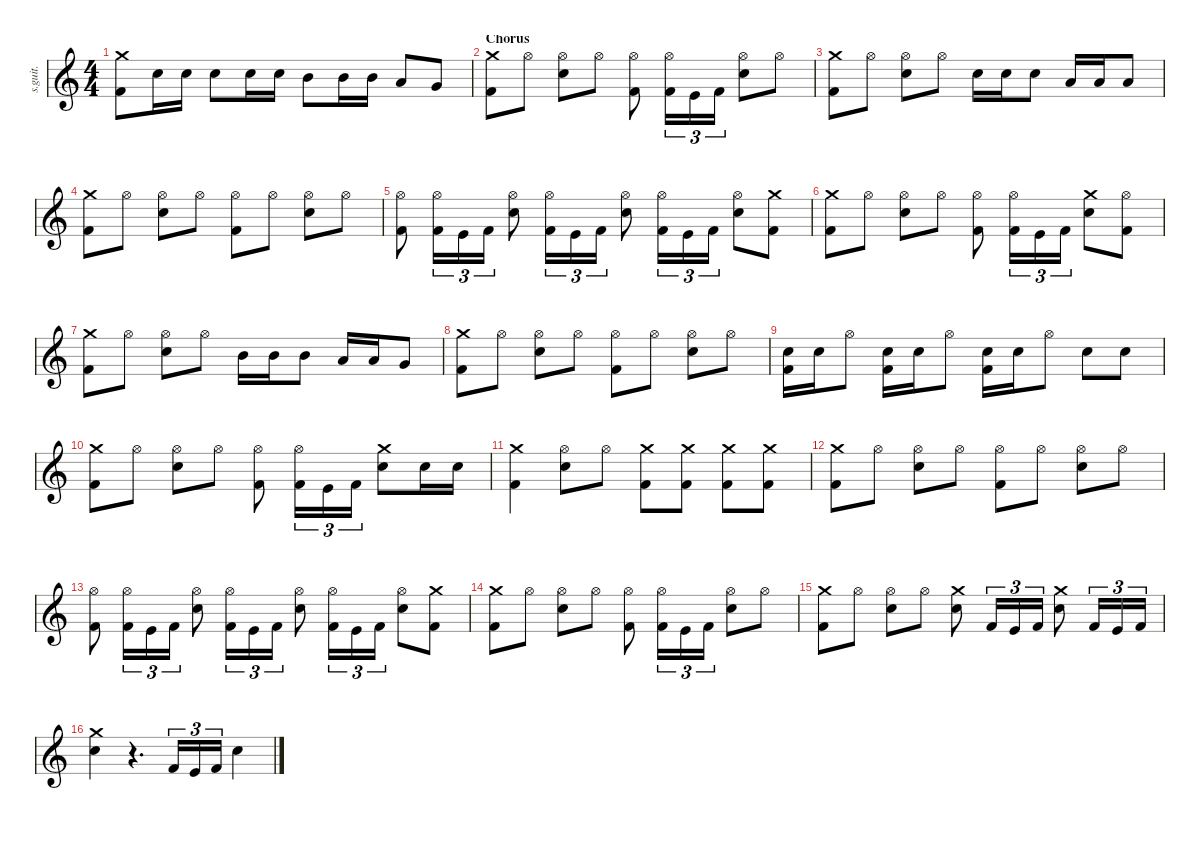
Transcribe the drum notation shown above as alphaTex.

\defaultSystemsLayout 4
\hideDynamics
\bracketExtendMode nobrackets
\track ("Lars Ulrich - Drums" "s.guit.") {instrument percussion}
\staff {score}
\articulation defaults
\ts (4 4)
\tempo (140 hide)
\clef g2
\ks c
("Crash medium (hit)" "Kick (hit) 2").8{lyrics (0 "") lyrics (1 "") lyrics (2 "") lyrics (3 "") lyrics (4 "") dy f} "Snare (hit) 2".16{lyrics (0 "") lyrics (1 "") lyrics (2 "") lyrics (3 "") lyrics (4 "") dy mf} "Snare (hit) 2".16{lyrics (0 "") lyrics (1 "") lyrics (2 "") lyrics (3 "") lyrics (4 "")} "Snare (hit) 2".8{lyrics (0 "") lyrics (1 "") lyrics (2 "") lyrics (3 "") lyrics (4 "") dy ff} "Snare (hit) 2".16{lyrics (0 "") lyrics (1 "") lyrics (2 "") lyrics (3 "") lyrics (4 "") dy mf} "Snare (hit) 2".16{lyrics (0 "") lyrics (1 "") lyrics (2 "") lyrics (3 "") lyrics (4 "")} "Mid Tom (hit)".8{lyrics (0 "") lyrics (1 "") lyrics (2 "") lyrics (3 "") lyrics (4 "") dy fff} "Mid Tom (hit)".16{lyrics (0 "") lyrics (1 "") lyrics (2 "") lyrics (3 "") lyrics (4 "")} "Mid Tom (hit)".16{lyrics (0 "") lyrics (1 "") lyrics (2 "") lyrics (3 "") lyrics (4 "")} "Low Tom (hit)".8{lyrics (0 "") lyrics (1 "") lyrics (2 "") lyrics (3 "") lyrics (4 "")} "Very Low Tom (hit)".8{lyrics (0 "") lyrics (1 "") lyrics (2 "") lyrics (3 "") lyrics (4 "") dy ff} |
\section ("" "Chorus")
("Crash medium (hit)" "Kick (hit) 2").8{lyrics (0 "") lyrics (1 "") lyrics (2 "") lyrics (3 "") lyrics (4 "") dy f} "Hi-Hat (open)".8{lyrics (0 "") lyrics (1 "") lyrics (2 "") lyrics (3 "") lyrics (4 "")} ("Hi-Hat (open)" "Snare (hit) 2").8{lyrics (0 "") lyrics (1 "") lyrics (2 "") lyrics (3 "") lyrics (4 "")} "Hi-Hat (open)".8{lyrics (0 "") lyrics (1 "") lyrics (2 "") lyrics (3 "") lyrics (4 "")} ("Hi-Hat (open)" "Kick (hit) 2").8{lyrics (0 "") lyrics (1 "") lyrics (2 "") lyrics (3 "") lyrics (4 "")} ("Hi-Hat (open)" "Kick (hit) 2").16{tu (3 2) lyrics (0 "") lyrics (1 "") lyrics (2 "") lyrics (3 "") lyrics (4 "")} "Kick (hit)".16{tu (3 2) lyrics (0 "") lyrics (1 "") lyrics (2 "") lyrics (3 "") lyrics (4 "")} "Kick (hit) 2".16{tu (3 2) lyrics (0 "") lyrics (1 "") lyrics (2 "") lyrics (3 "") lyrics (4 "")} ("Hi-Hat (open)" "Snare (hit) 2").8{lyrics (0 "") lyrics (1 "") lyrics (2 "") lyrics (3 "") lyrics (4 "")} "Hi-Hat (open)".8{lyrics (0 "") lyrics (1 "") lyrics (2 "") lyrics (3 "") lyrics (4 "")} |
("Crash medium (hit)" "Kick (hit) 2").8{lyrics (0 "") lyrics (1 "") lyrics (2 "") lyrics (3 "") lyrics (4 "")} "Hi-Hat (open)".8{lyrics (0 "") lyrics (1 "") lyrics (2 "") lyrics (3 "") lyrics (4 "")} ("Hi-Hat (open)" "Snare (hit) 2").8{lyrics (0 "") lyrics (1 "") lyrics (2 "") lyrics (3 "") lyrics (4 "")} "Hi-Hat (open)".8{lyrics (0 "") lyrics (1 "") lyrics (2 "") lyrics (3 "") lyrics (4 "")} "Snare (hit) 2".16{lyrics (0 "") lyrics (1 "") lyrics (2 "") lyrics (3 "") lyrics (4 "") dy ff} "Snare (hit) 2".16{lyrics (0 "") lyrics (1 "") lyrics (2 "") lyrics (3 "") lyrics (4 "")} "Snare (hit) 2".8{lyrics (0 "") lyrics (1 "") lyrics (2 "") lyrics (3 "") lyrics (4 "")} "Low Tom (hit)".16{lyrics (0 "") lyrics (1 "") lyrics (2 "") lyrics (3 "") lyrics (4 "") dy fff} "Low Tom (hit)".16{lyrics (0 "") lyrics (1 "") lyrics (2 "") lyrics (3 "") lyrics (4 "")} "Low Tom (hit)".8{lyrics (0 "") lyrics (1 "") lyrics (2 "") lyrics (3 "") lyrics (4 "")} |
("Crash medium (hit)" "Kick (hit) 2").8{lyrics (0 "") lyrics (1 "") lyrics (2 "") lyrics (3 "") lyrics (4 "") dy f} "Hi-Hat (open)".8{lyrics (0 "") lyrics (1 "") lyrics (2 "") lyrics (3 "") lyrics (4 "")} ("Hi-Hat (open)" "Snare (hit) 2").8{lyrics (0 "") lyrics (1 "") lyrics (2 "") lyrics (3 "") lyrics (4 "")} "Hi-Hat (open)".8{lyrics (0 "") lyrics (1 "") lyrics (2 "") lyrics (3 "") lyrics (4 "")} ("Hi-Hat (open)" "Kick (hit) 2").8{lyrics (0 "") lyrics (1 "") lyrics (2 "") lyrics (3 "") lyrics (4 "")} "Hi-Hat (open)".8{lyrics (0 "") lyrics (1 "") lyrics (2 "") lyrics (3 "") lyrics (4 "")} ("Hi-Hat (open)" "Snare (hit) 2").8{lyrics (0 "") lyrics (1 "") lyrics (2 "") lyrics (3 "") lyrics (4 "")} "Hi-Hat (open)".8{lyrics (0 "") lyrics (1 "") lyrics (2 "") lyrics (3 "") lyrics (4 "")} |
("Hi-Hat (open)" "Kick (hit) 2").8{lyrics (0 "") lyrics (1 "") lyrics (2 "") lyrics (3 "") lyrics (4 "")} ("Hi-Hat (open)" "Kick (hit) 2").16{tu (3 2) lyrics (0 "") lyrics (1 "") lyrics (2 "") lyrics (3 "") lyrics (4 "")} "Kick (hit)".16{tu (3 2) lyrics (0 "") lyrics (1 "") lyrics (2 "") lyrics (3 "") lyrics (4 "")} "Kick (hit) 2".16{tu (3 2) lyrics (0 "") lyrics (1 "") lyrics (2 "") lyrics (3 "") lyrics (4 "")} ("Hi-Hat (open)" "Snare (hit) 2").8{lyrics (0 "") lyrics (1 "") lyrics (2 "") lyrics (3 "") lyrics (4 "")} ("Hi-Hat (open)" "Kick (hit) 2").16{tu (3 2) lyrics (0 "") lyrics (1 "") lyrics (2 "") lyrics (3 "") lyrics (4 "")} "Kick (hit)".16{tu (3 2) lyrics (0 "") lyrics (1 "") lyrics (2 "") lyrics (3 "") lyrics (4 "")} "Kick (hit) 2".16{tu (3 2) lyrics (0 "") lyrics (1 "") lyrics (2 "") lyrics (3 "") lyrics (4 "")} ("Hi-Hat (open)" "Snare (hit) 2").8{lyrics (0 "") lyrics (1 "") lyrics (2 "") lyrics (3 "") lyrics (4 "")} ("Hi-Hat (open)" "Kick (hit) 2").16{tu (3 2) lyrics (0 "") lyrics (1 "") lyrics (2 "") lyrics (3 "") lyrics (4 "")} "Kick (hit)".16{tu (3 2) lyrics (0 "") lyrics (1 "") lyrics (2 "") lyrics (3 "") lyrics (4 "")} "Kick (hit) 2".16{tu (3 2) lyrics (0 "") lyrics (1 "") lyrics (2 "") lyrics (3 "") lyrics (4 "")} ("Hi-Hat (open)" "Snare (hit) 2").8{lyrics (0 "") lyrics (1 "") lyrics (2 "") lyrics (3 "") lyrics (4 "")} ("Crash medium (hit)" "Kick (hit) 2").8{lyrics (0 "") lyrics (1 "") lyrics (2 "") lyrics (3 "") lyrics (4 "")} |
("Crash medium (hit)" "Kick (hit) 2").8{lyrics (0 "") lyrics (1 "") lyrics (2 "") lyrics (3 "") lyrics (4 "")} "Hi-Hat (open)".8{lyrics (0 "") lyrics (1 "") lyrics (2 "") lyrics (3 "") lyrics (4 "")} ("Hi-Hat (open)" "Snare (hit) 2").8{lyrics (0 "") lyrics (1 "") lyrics (2 "") lyrics (3 "") lyrics (4 "")} "Hi-Hat (open)".8{lyrics (0 "") lyrics (1 "") lyrics (2 "") lyrics (3 "") lyrics (4 "")} ("Hi-Hat (open)" "Kick (hit) 2").8{lyrics (0 "") lyrics (1 "") lyrics (2 "") lyrics (3 "") lyrics (4 "")} ("Hi-Hat (open)" "Kick (hit) 2").16{tu (3 2) lyrics (0 "") lyrics (1 "") lyrics (2 "") lyrics (3 "") lyrics (4 "")} "Kick (hit)".16{tu (3 2) lyrics (0 "") lyrics (1 "") lyrics (2 "") lyrics (3 "") lyrics (4 "")} "Kick (hit) 2".16{tu (3 2) lyrics (0 "") lyrics (1 "") lyrics (2 "") lyrics (3 "") lyrics (4 "")} ("Crash medium (hit)" "Snare (hit) 2").8{lyrics (0 "") lyrics (1 "") lyrics (2 "") lyrics (3 "") lyrics (4 "")} ("Hi-Hat (open)" "Kick (hit) 2").8{lyrics (0 "") lyrics (1 "") lyrics (2 "") lyrics (3 "") lyrics (4 "")} |
("Crash medium (hit)" "Kick (hit) 2").8{lyrics (0 "") lyrics (1 "") lyrics (2 "") lyrics (3 "") lyrics (4 "")} "Hi-Hat (open)".8{lyrics (0 "") lyrics (1 "") lyrics (2 "") lyrics (3 "") lyrics (4 "")} ("Hi-Hat (open)" "Snare (hit) 2").8{lyrics (0 "") lyrics (1 "") lyrics (2 "") lyrics (3 "") lyrics (4 "")} "Hi-Hat (open)".8{lyrics (0 "") lyrics (1 "") lyrics (2 "") lyrics (3 "") lyrics (4 "")} "Mid Tom (hit)".16{lyrics (0 "") lyrics (1 "") lyrics (2 "") lyrics (3 "") lyrics (4 "") dy fff} "Mid Tom (hit)".16{lyrics (0 "") lyrics (1 "") lyrics (2 "") lyrics (3 "") lyrics (4 "")} "Mid Tom (hit)".8{lyrics (0 "") lyrics (1 "") lyrics (2 "") lyrics (3 "") lyrics (4 "")} "Low Tom (hit)".16{lyrics (0 "") lyrics (1 "") lyrics (2 "") lyrics (3 "") lyrics (4 "")} "Low Tom (hit)".16{lyrics (0 "") lyrics (1 "") lyrics (2 "") lyrics (3 "") lyrics (4 "")} "Very Low Tom (hit)".8{lyrics (0 "") lyrics (1 "") lyrics (2 "") lyrics (3 "") lyrics (4 "") dy ff} |
("Crash medium (hit)" "Kick (hit) 2").8{lyrics (0 "") lyrics (1 "") lyrics (2 "") lyrics (3 "") lyrics (4 "") dy f} "Hi-Hat (open)".8{lyrics (0 "") lyrics (1 "") lyrics (2 "") lyrics (3 "") lyrics (4 "")} ("Hi-Hat (open)" "Snare (hit) 2").8{lyrics (0 "") lyrics (1 "") lyrics (2 "") lyrics (3 "") lyrics (4 "")} "Hi-Hat (open)".8{lyrics (0 "") lyrics (1 "") lyrics (2 "") lyrics (3 "") lyrics (4 "")} ("Hi-Hat (open)" "Kick (hit) 2").8{lyrics (0 "") lyrics (1 "") lyrics (2 "") lyrics (3 "") lyrics (4 "")} "Hi-Hat (open)".8{lyrics (0 "") lyrics (1 "") lyrics (2 "") lyrics (3 "") lyrics (4 "")} ("Hi-Hat (open)" "Snare (hit) 2").8{lyrics (0 "") lyrics (1 "") lyrics (2 "") lyrics (3 "") lyrics (4 "")} "Hi-Hat (open)".8{lyrics (0 "") lyrics (1 "") lyrics (2 "") lyrics (3 "") lyrics (4 "")} |
("Snare (hit) 2" "Kick (hit) 2").16{lyrics (0 "") lyrics (1 "") lyrics (2 "") lyrics (3 "") lyrics (4 "")} "Snare (hit) 2".16{lyrics (0 "") lyrics (1 "") lyrics (2 "") lyrics (3 "") lyrics (4 "")} "Hi-Hat (open)".8{lyrics (0 "") lyrics (1 "") lyrics (2 "") lyrics (3 "") lyrics (4 "")} ("Snare (hit) 2" "Kick (hit) 2").16{lyrics (0 "") lyrics (1 "") lyrics (2 "") lyrics (3 "") lyrics (4 "")} "Snare (hit) 2".16{lyrics (0 "") lyrics (1 "") lyrics (2 "") lyrics (3 "") lyrics (4 "")} "Hi-Hat (open)".8{lyrics (0 "") lyrics (1 "") lyrics (2 "") lyrics (3 "") lyrics (4 "")} ("Snare (hit) 2" "Kick (hit) 2").16{lyrics (0 "") lyrics (1 "") lyrics (2 "") lyrics (3 "") lyrics (4 "")} "Snare (hit) 2".16{lyrics (0 "") lyrics (1 "") lyrics (2 "") lyrics (3 "") lyrics (4 "")} "Hi-Hat (open)".8{lyrics (0 "") lyrics (1 "") lyrics (2 "") lyrics (3 "") lyrics (4 "")} "Snare (hit) 2".8{lyrics (0 "") lyrics (1 "") lyrics (2 "") lyrics (3 "") lyrics (4 "") dy fff} "Snare (hit) 2".8{lyrics (0 "") lyrics (1 "") lyrics (2 "") lyrics (3 "") lyrics (4 "")} |
("Crash medium (hit)" "Kick (hit) 2").8{lyrics (0 "") lyrics (1 "") lyrics (2 "") lyrics (3 "") lyrics (4 "") dy f} "Hi-Hat (open)".8{lyrics (0 "") lyrics (1 "") lyrics (2 "") lyrics (3 "") lyrics (4 "")} ("Hi-Hat (open)" "Snare (hit) 2").8{lyrics (0 "") lyrics (1 "") lyrics (2 "") lyrics (3 "") lyrics (4 "")} "Hi-Hat (open)".8{lyrics (0 "") lyrics (1 "") lyrics (2 "") lyrics (3 "") lyrics (4 "")} ("Hi-Hat (open)" "Kick (hit) 2").8{lyrics (0 "") lyrics (1 "") lyrics (2 "") lyrics (3 "") lyrics (4 "")} ("Hi-Hat (open)" "Kick (hit) 2").16{tu (3 2) lyrics (0 "") lyrics (1 "") lyrics (2 "") lyrics (3 "") lyrics (4 "")} "Kick (hit)".16{tu (3 2) lyrics (0 "") lyrics (1 "") lyrics (2 "") lyrics (3 "") lyrics (4 "")} "Kick (hit) 2".16{tu (3 2) lyrics (0 "") lyrics (1 "") lyrics (2 "") lyrics (3 "") lyrics (4 "")} ("Crash medium (hit)" "Snare (hit) 2").8{lyrics (0 "") lyrics (1 "") lyrics (2 "") lyrics (3 "") lyrics (4 "")} "Snare (hit) 2".16{lyrics (0 "") lyrics (1 "") lyrics (2 "") lyrics (3 "") lyrics (4 "") dy mp} "Snare (hit) 2".16{lyrics (0 "") lyrics (1 "") lyrics (2 "") lyrics (3 "") lyrics (4 "")} |
("Crash medium (hit)" "Kick (hit) 2").4{lyrics (0 "") lyrics (1 "") lyrics (2 "") lyrics (3 "") lyrics (4 "") dy f} ("Hi-Hat (open)" "Snare (hit) 2").8{lyrics (0 "") lyrics (1 "") lyrics (2 "") lyrics (3 "") lyrics (4 "")} "Hi-Hat (open)".8{lyrics (0 "") lyrics (1 "") lyrics (2 "") lyrics (3 "") lyrics (4 "")} ("Crash medium (hit)" "Kick (hit) 2").8{lyrics (0 "") lyrics (1 "") lyrics (2 "") lyrics (3 "") lyrics (4 "")} ("Crash medium (hit)" "Kick (hit) 2").8{lyrics (0 "") lyrics (1 "") lyrics (2 "") lyrics (3 "") lyrics (4 "")} ("Crash medium (hit)" "Kick (hit) 2").8{lyrics (0 "") lyrics (1 "") lyrics (2 "") lyrics (3 "") lyrics (4 "")} ("Crash medium (hit)" "Kick (hit) 2").8{lyrics (0 "") lyrics (1 "") lyrics (2 "") lyrics (3 "") lyrics (4 "")} |
("Crash medium (hit)" "Kick (hit) 2").8{lyrics (0 "") lyrics (1 "") lyrics (2 "") lyrics (3 "") lyrics (4 "")} "Hi-Hat (open)".8{lyrics (0 "") lyrics (1 "") lyrics (2 "") lyrics (3 "") lyrics (4 "")} ("Hi-Hat (open)" "Snare (hit) 2").8{lyrics (0 "") lyrics (1 "") lyrics (2 "") lyrics (3 "") lyrics (4 "")} "Hi-Hat (open)".8{lyrics (0 "") lyrics (1 "") lyrics (2 "") lyrics (3 "") lyrics (4 "")} ("Hi-Hat (open)" "Kick (hit) 2").8{lyrics (0 "") lyrics (1 "") lyrics (2 "") lyrics (3 "") lyrics (4 "")} "Hi-Hat (open)".8{lyrics (0 "") lyrics (1 "") lyrics (2 "") lyrics (3 "") lyrics (4 "")} ("Hi-Hat (open)" "Snare (hit) 2").8{lyrics (0 "") lyrics (1 "") lyrics (2 "") lyrics (3 "") lyrics (4 "")} "Hi-Hat (open)".8{lyrics (0 "") lyrics (1 "") lyrics (2 "") lyrics (3 "") lyrics (4 "")} |
("Hi-Hat (open)" "Kick (hit) 2").8{lyrics (0 "") lyrics (1 "") lyrics (2 "") lyrics (3 "") lyrics (4 "")} ("Hi-Hat (open)" "Kick (hit) 2").16{tu (3 2) lyrics (0 "") lyrics (1 "") lyrics (2 "") lyrics (3 "") lyrics (4 "")} "Kick (hit)".16{tu (3 2) lyrics (0 "") lyrics (1 "") lyrics (2 "") lyrics (3 "") lyrics (4 "")} "Kick (hit) 2".16{tu (3 2) lyrics (0 "") lyrics (1 "") lyrics (2 "") lyrics (3 "") lyrics (4 "")} ("Hi-Hat (open)" "Snare (hit) 2").8{lyrics (0 "") lyrics (1 "") lyrics (2 "") lyrics (3 "") lyrics (4 "")} ("Hi-Hat (open)" "Kick (hit) 2").16{tu (3 2) lyrics (0 "") lyrics (1 "") lyrics (2 "") lyrics (3 "") lyrics (4 "")} "Kick (hit)".16{tu (3 2) lyrics (0 "") lyrics (1 "") lyrics (2 "") lyrics (3 "") lyrics (4 "")} "Kick (hit) 2".16{tu (3 2) lyrics (0 "") lyrics (1 "") lyrics (2 "") lyrics (3 "") lyrics (4 "")} ("Hi-Hat (open)" "Snare (hit) 2").8{lyrics (0 "") lyrics (1 "") lyrics (2 "") lyrics (3 "") lyrics (4 "")} ("Hi-Hat (open)" "Kick (hit) 2").16{tu (3 2) lyrics (0 "") lyrics (1 "") lyrics (2 "") lyrics (3 "") lyrics (4 "")} "Kick (hit)".16{tu (3 2) lyrics (0 "") lyrics (1 "") lyrics (2 "") lyrics (3 "") lyrics (4 "")} "Kick (hit) 2".16{tu (3 2) lyrics (0 "") lyrics (1 "") lyrics (2 "") lyrics (3 "") lyrics (4 "")} ("Hi-Hat (open)" "Snare (hit) 2").8{lyrics (0 "") lyrics (1 "") lyrics (2 "") lyrics (3 "") lyrics (4 "")} ("Crash medium (hit)" "Kick (hit) 2").8{lyrics (0 "") lyrics (1 "") lyrics (2 "") lyrics (3 "") lyrics (4 "")} |
("Crash medium (hit)" "Kick (hit) 2").8{lyrics (0 "") lyrics (1 "") lyrics (2 "") lyrics (3 "") lyrics (4 "")} "Hi-Hat (open)".8{lyrics (0 "") lyrics (1 "") lyrics (2 "") lyrics (3 "") lyrics (4 "")} ("Hi-Hat (open)" "Snare (hit) 2").8{lyrics (0 "") lyrics (1 "") lyrics (2 "") lyrics (3 "") lyrics (4 "")} "Hi-Hat (open)".8{lyrics (0 "") lyrics (1 "") lyrics (2 "") lyrics (3 "") lyrics (4 "")} ("Hi-Hat (open)" "Kick (hit) 2").8{lyrics (0 "") lyrics (1 "") lyrics (2 "") lyrics (3 "") lyrics (4 "")} ("Hi-Hat (open)" "Kick (hit) 2").16{tu (3 2) lyrics (0 "") lyrics (1 "") lyrics (2 "") lyrics (3 "") lyrics (4 "")} "Kick (hit)".16{tu (3 2) lyrics (0 "") lyrics (1 "") lyrics (2 "") lyrics (3 "") lyrics (4 "")} "Kick (hit) 2".16{tu (3 2) lyrics (0 "") lyrics (1 "") lyrics (2 "") lyrics (3 "") lyrics (4 "")} ("Hi-Hat (open)" "Snare (hit) 2").8{lyrics (0 "") lyrics (1 "") lyrics (2 "") lyrics (3 "") lyrics (4 "")} "Hi-Hat (open)".8{lyrics (0 "") lyrics (1 "") lyrics (2 "") lyrics (3 "") lyrics (4 "")} |
("Crash medium (hit)" "Kick (hit) 2").8{lyrics (0 "") lyrics (1 "") lyrics (2 "") lyrics (3 "") lyrics (4 "")} "Hi-Hat (open)".8{lyrics (0 "") lyrics (1 "") lyrics (2 "") lyrics (3 "") lyrics (4 "")} ("Hi-Hat (open)" "Snare (hit) 2").8{lyrics (0 "") lyrics (1 "") lyrics (2 "") lyrics (3 "") lyrics (4 "")} "Hi-Hat (open)".8{lyrics (0 "") lyrics (1 "") lyrics (2 "") lyrics (3 "") lyrics (4 "")} ("Crash medium (hit)" "Snare (hit) 2").8{lyrics (0 "") lyrics (1 "") lyrics (2 "") lyrics (3 "") lyrics (4 "")} "Kick (hit) 2".16{tu (3 2) lyrics (0 "") lyrics (1 "") lyrics (2 "") lyrics (3 "") lyrics (4 "") dy ff} "Kick (hit)".16{tu (3 2) lyrics (0 "") lyrics (1 "") lyrics (2 "") lyrics (3 "") lyrics (4 "")} "Kick (hit) 2".16{tu (3 2) lyrics (0 "") lyrics (1 "") lyrics (2 "") lyrics (3 "") lyrics (4 "") dy f} ("Crash medium (hit)" "Snare (hit) 2").8{lyrics (0 "") lyrics (1 "") lyrics (2 "") lyrics (3 "") lyrics (4 "")} "Kick (hit) 2".16{tu (3 2) lyrics (0 "") lyrics (1 "") lyrics (2 "") lyrics (3 "") lyrics (4 "") dy ff} "Kick (hit)".16{tu (3 2) lyrics (0 "") lyrics (1 "") lyrics (2 "") lyrics (3 "") lyrics (4 "")} "Kick (hit) 2".16{tu (3 2) lyrics (0 "") lyrics (1 "") lyrics (2 "") lyrics (3 "") lyrics (4 "") dy f} |
\tempo (208 hide)
("Crash medium (hit)" "Snare (hit) 2").4{lyrics (0 "") lyrics (1 "") lyrics (2 "") lyrics (3 "") lyrics (4 "")} r.4{d} "Kick (hit) 2".16{tu (3 2) lyrics (0 "") lyrics (1 "") lyrics (2 "") lyrics (3 "") lyrics (4 "") dy ff} "Kick (hit)".16{tu (3 2) lyrics (0 "") lyrics (1 "") lyrics (2 "") lyrics (3 "") lyrics (4 "")} "Kick (hit) 2".16{tu (3 2) lyrics (0 "") lyrics (1 "") lyrics (2 "") lyrics (3 "") lyrics (4 "") dy f} "Snare (hit) 2".4{lyrics (0 "") lyrics (1 "") lyrics (2 "") lyrics (3 "") lyrics (4 "") dy fff}
